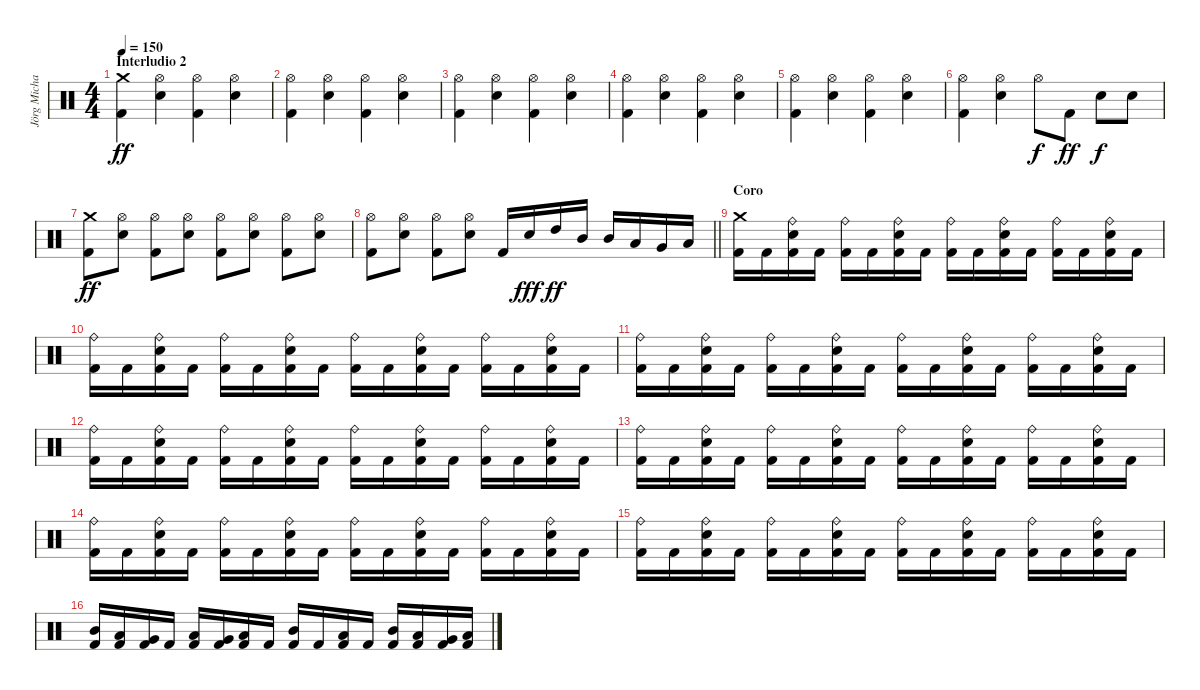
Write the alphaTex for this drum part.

\track ("Jörg Michael" "Jörg Micha") {instrument percussion}
\staff {score}
\articulation defaults
\ts (4 4)
\section ("" "Interludio 2")
\tempo 150
\clef neutral
\ks c
("Crash medium (hit)" "Kick (hit) 2").4{dy ff} ("Hi-Hat (open)" "Electric Snare (hit)").4 ("Hi-Hat (open)" "Kick (hit) 2").4 ("Hi-Hat (open)" "Electric Snare (hit)").4 |
("Hi-Hat (open)" "Kick (hit) 2").4 ("Hi-Hat (open)" "Electric Snare (hit)").4 ("Hi-Hat (open)" "Kick (hit) 2").4 ("Hi-Hat (open)" "Electric Snare (hit)").4 |
("Hi-Hat (open)" "Kick (hit) 2").4 ("Hi-Hat (open)" "Electric Snare (hit)").4 ("Hi-Hat (open)" "Kick (hit) 2").4 ("Hi-Hat (open)" "Electric Snare (hit)").4 |
("Hi-Hat (open)" "Kick (hit) 2").4 ("Hi-Hat (open)" "Electric Snare (hit)").4 ("Hi-Hat (open)" "Kick (hit) 2").4 ("Hi-Hat (open)" "Electric Snare (hit)").4 |
("Hi-Hat (open)" "Kick (hit) 2").4 ("Hi-Hat (open)" "Electric Snare (hit)").4 ("Hi-Hat (open)" "Kick (hit) 2").4 ("Hi-Hat (open)" "Electric Snare (hit)").4 |
("Hi-Hat (open)" "Kick (hit) 2").4 ("Hi-Hat (open)" "Electric Snare (hit)").4 "Hi-Hat (open)".8{dy f} "Kick (hit) 2".8{dy ff} "Electric Snare (hit)".8{dy f} "Electric Snare (hit)".8 |
("Crash medium (hit)" "Kick (hit) 2").8{dy ff} ("Hi-Hat (open)" "Electric Snare (hit)").8 ("Hi-Hat (open)" "Kick (hit) 2").8 ("Hi-Hat (open)" "Electric Snare (hit)").8 ("Hi-Hat (open)" "Kick (hit) 2").8 ("Hi-Hat (open)" "Electric Snare (hit)").8 ("Hi-Hat (open)" "Kick (hit) 2").8 ("Hi-Hat (open)" "Electric Snare (hit)").8 |
\barLineRight lightlight
("Hi-Hat (open)" "Kick (hit) 2").8 ("Hi-Hat (open)" "Electric Snare (hit)").8 ("Hi-Hat (open)" "Kick (hit) 2").8 ("Hi-Hat (open)" "Electric Snare (hit)").8 "Kick (hit) 2".16 "Electric Snare (hit)".16{dy fff} "High Tom (hit)".16{dy ff} "Mid Tom (hit)".16 "Mid Tom (hit)".16 "Low Tom (hit)".16 "Very Low Tom (hit)".16 "Low Floor Tom (hit)".16 |
\section ("" "Coro")
("Crash medium (hit)" "Kick (hit) 2").16 "Kick (hit) 2".16 ("Ride (bell)" "Electric Snare (hit)" "Kick (hit) 2").16 "Kick (hit) 2".16 ("Ride (bell)" "Kick (hit) 2").16 "Kick (hit) 2".16 ("Ride (bell)" "Electric Snare (hit)" "Kick (hit) 2").16 "Kick (hit) 2".16 ("Ride (bell)" "Kick (hit) 2").16 "Kick (hit) 2".16 ("Ride (bell)" "Electric Snare (hit)" "Kick (hit) 2").16 "Kick (hit) 2".16 ("Ride (bell)" "Kick (hit) 2").16 "Kick (hit) 2".16 ("Ride (bell)" "Electric Snare (hit)" "Kick (hit) 2").16 "Kick (hit) 2".16 |
("Ride (bell)" "Kick (hit) 2").16 "Kick (hit) 2".16 ("Ride (bell)" "Electric Snare (hit)" "Kick (hit) 2").16 "Kick (hit) 2".16 ("Ride (bell)" "Kick (hit) 2").16 "Kick (hit) 2".16 ("Ride (bell)" "Electric Snare (hit)" "Kick (hit) 2").16 "Kick (hit) 2".16 ("Ride (bell)" "Kick (hit) 2").16 "Kick (hit) 2".16 ("Ride (bell)" "Electric Snare (hit)" "Kick (hit) 2").16 "Kick (hit) 2".16 ("Ride (bell)" "Kick (hit) 2").16 "Kick (hit) 2".16 ("Ride (bell)" "Electric Snare (hit)" "Kick (hit) 2").16 "Kick (hit) 2".16 |
("Ride (bell)" "Kick (hit) 2").16 "Kick (hit) 2".16 ("Ride (bell)" "Electric Snare (hit)" "Kick (hit) 2").16 "Kick (hit) 2".16 ("Ride (bell)" "Kick (hit) 2").16 "Kick (hit) 2".16 ("Ride (bell)" "Electric Snare (hit)" "Kick (hit) 2").16 "Kick (hit) 2".16 ("Ride (bell)" "Kick (hit) 2").16 "Kick (hit) 2".16 ("Ride (bell)" "Electric Snare (hit)" "Kick (hit) 2").16 "Kick (hit) 2".16 ("Ride (bell)" "Kick (hit) 2").16 "Kick (hit) 2".16 ("Ride (bell)" "Electric Snare (hit)" "Kick (hit) 2").16 "Kick (hit) 2".16 |
("Ride (bell)" "Kick (hit) 2").16 "Kick (hit) 2".16 ("Ride (bell)" "Electric Snare (hit)" "Kick (hit) 2").16 "Kick (hit) 2".16 ("Ride (bell)" "Kick (hit) 2").16 "Kick (hit) 2".16 ("Ride (bell)" "Electric Snare (hit)" "Kick (hit) 2").16 "Kick (hit) 2".16 ("Ride (bell)" "Kick (hit) 2").16 "Kick (hit) 2".16 ("Ride (bell)" "Electric Snare (hit)" "Kick (hit) 2").16 "Kick (hit) 2".16 ("Ride (bell)" "Kick (hit) 2").16 "Kick (hit) 2".16 ("Ride (bell)" "Electric Snare (hit)" "Kick (hit) 2").16 "Kick (hit) 2".16 |
("Ride (bell)" "Kick (hit) 2").16 "Kick (hit) 2".16 ("Ride (bell)" "Electric Snare (hit)" "Kick (hit) 2").16 "Kick (hit) 2".16 ("Ride (bell)" "Kick (hit) 2").16 "Kick (hit) 2".16 ("Ride (bell)" "Electric Snare (hit)" "Kick (hit) 2").16 "Kick (hit) 2".16 ("Ride (bell)" "Kick (hit) 2").16 "Kick (hit) 2".16 ("Ride (bell)" "Electric Snare (hit)" "Kick (hit) 2").16 "Kick (hit) 2".16 ("Ride (bell)" "Kick (hit) 2").16 "Kick (hit) 2".16 ("Ride (bell)" "Electric Snare (hit)" "Kick (hit) 2").16 "Kick (hit) 2".16 |
("Ride (bell)" "Kick (hit) 2").16 "Kick (hit) 2".16 ("Ride (bell)" "Electric Snare (hit)" "Kick (hit) 2").16 "Kick (hit) 2".16 ("Ride (bell)" "Kick (hit) 2").16 "Kick (hit) 2".16 ("Ride (bell)" "Electric Snare (hit)" "Kick (hit) 2").16 "Kick (hit) 2".16 ("Ride (bell)" "Kick (hit) 2").16 "Kick (hit) 2".16 ("Ride (bell)" "Electric Snare (hit)" "Kick (hit) 2").16 "Kick (hit) 2".16 ("Ride (bell)" "Kick (hit) 2").16 "Kick (hit) 2".16 ("Ride (bell)" "Electric Snare (hit)" "Kick (hit) 2").16 "Kick (hit) 2".16 |
("Ride (bell)" "Kick (hit) 2").16 "Kick (hit) 2".16 ("Ride (bell)" "Electric Snare (hit)" "Kick (hit) 2").16 "Kick (hit) 2".16 ("Ride (bell)" "Kick (hit) 2").16 "Kick (hit) 2".16 ("Ride (bell)" "Electric Snare (hit)" "Kick (hit) 2").16 "Kick (hit) 2".16 ("Ride (bell)" "Kick (hit) 2").16 "Kick (hit) 2".16 ("Ride (bell)" "Electric Snare (hit)" "Kick (hit) 2").16 "Kick (hit) 2".16 ("Ride (bell)" "Kick (hit) 2").16 "Kick (hit) 2".16 ("Ride (bell)" "Electric Snare (hit)" "Kick (hit) 2").16 "Kick (hit) 2".16 |
("Mid Tom (hit)" "Kick (hit) 2").16 ("Low Tom (hit)" "Kick (hit) 2").16 ("Very Low Tom (hit)" "Kick (hit) 2").16 "Kick (hit) 2".16 ("Low Tom (hit)" "Kick (hit) 2").16 ("Very Low Tom (hit)" "Kick (hit) 2").16 ("Low Floor Tom (hit)" "Kick (hit) 2").16 "Kick (hit) 2".16 ("Mid Tom (hit)" "Kick (hit) 2").16 "Kick (hit) 2".16 ("Low Tom (hit)" "Kick (hit) 2").16 "Kick (hit) 2".16 ("Mid Tom (hit)" "Kick (hit) 2").16 ("Low Tom (hit)" "Kick (hit) 2").16 ("Very Low Tom (hit)" "Kick (hit) 2").16 ("Low Floor Tom (hit)" "Kick (hit) 2").16
